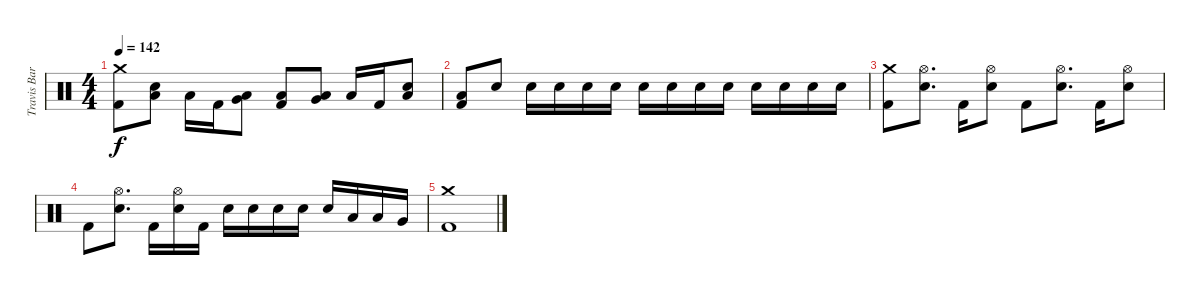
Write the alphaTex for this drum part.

\track ("Travis Barker - Drums" "Travis Bar") {instrument percussion}
\staff {score}
\articulation defaults
\ts (4 4)
\tempo 142
\clef neutral
\ks c
("Crash medium (hit)" "Kick (hit) 2").8{dy f} ("Low Floor Tom (hit)" "Electric Snare (hit)").8 "Low Floor Tom (hit)".16{beam Down} "Kick (hit) 2".16{beam Down} ("Low Tom (hit)" "Very Low Tom (hit)").8{beam Down} ("Low Floor Tom (hit)" "Kick (hit) 2").8 ("Low Tom (hit)" "Very Low Tom (hit)").8 "Low Floor Tom (hit)".16 "Kick (hit) 2".16 ("Electric Snare (hit)" "Low Floor Tom (hit)").8 |
("Low Floor Tom (hit)" "Kick (hit) 2").8 "Electric Snare (hit)".8 "Electric Snare (hit)".16 "Electric Snare (hit)".16{volume 9} "Electric Snare (hit)".16{volume 12} "Electric Snare (hit)".16 "Electric Snare (hit)".16 "Electric Snare (hit)".16 "Electric Snare (hit)".16 "Electric Snare (hit)".16 "Electric Snare (hit)".16 "Electric Snare (hit)".16 "Electric Snare (hit)".16 "Electric Snare (hit)".16 |
("Crash medium (hit)" "Kick (hit) 2").8 ("Hi-Hat (open)" "Electric Snare (hit)").8{d} "Kick (hit) 2".16 ("Hi-Hat (open)" "Electric Snare (hit)").8 "Kick (hit) 2".8 ("Hi-Hat (open)" "Electric Snare (hit)").8{d} "Kick (hit) 2".16 ("Hi-Hat (open)" "Electric Snare (hit)").8 |
"Kick (hit) 2".8 ("Hi-Hat (open)" "Electric Snare (hit)").8{d} "Kick (hit) 2".16 ("Hi-Hat (open)" "Electric Snare (hit)").16 "Kick (hit) 2".16 "Electric Snare (hit)".16 "Electric Snare (hit)".16 "Electric Snare (hit)".16 "Electric Snare (hit)".16 "Electric Snare (hit)".16 "Low Tom (hit)".16 "Low Tom (hit)".16 "Very Low Tom (hit)".16 |
("Crash medium (hit)" "Kick (hit) 2").1
